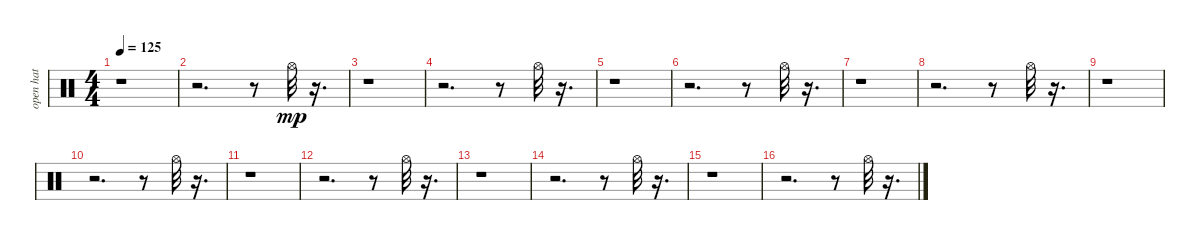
\track ("open hat" "open hat") {instrument percussion}
\staff {score}
\articulation defaults
\ts (4 4)
\tempo 125
\clef neutral
\ks c
r.1{dy mp} |
r.2{d} r.8 "Hi-Hat (open)".32 r.16{d} |
r.1 |
r.2{d} r.8 "Hi-Hat (open)".32 r.16{d} |
r.1 |
r.2{d} r.8 "Hi-Hat (open)".32 r.16{d} |
r.1 |
r.2{d} r.8 "Hi-Hat (open)".32 r.16{d} |
r.1 |
r.2{d} r.8 "Hi-Hat (open)".32 r.16{d} |
r.1 |
r.2{d} r.8 "Hi-Hat (open)".32 r.16{d} |
r.1 |
r.2{d} r.8 "Hi-Hat (open)".32 r.16{d} |
r.1 |
r.2{d} r.8 "Hi-Hat (open)".32 r.16{d}
